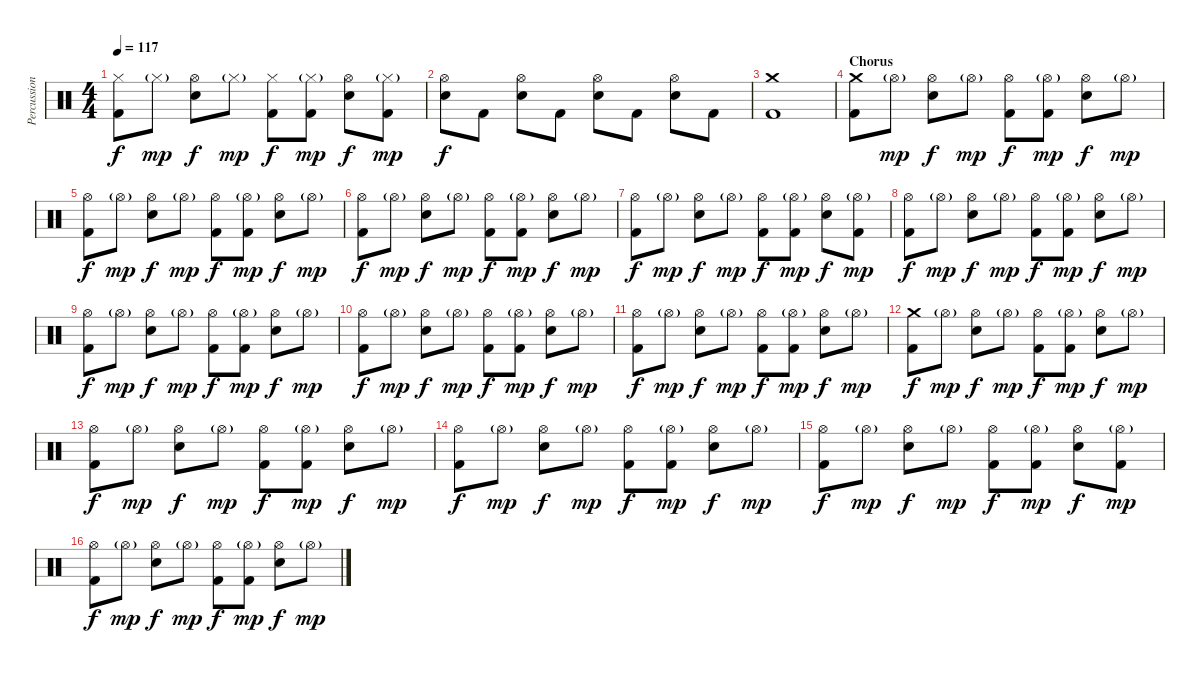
\track ("Percussion" "Percussion") {instrument percussion}
\staff {score}
\articulation defaults
\ts (4 4)
\tempo 117
\clef neutral
\ks c
("Hi-Hat (closed)" "Kick (hit) 2").8{dy f} "Hi-Hat (closed)"{g}.8{dy mp} ("Hi-Hat (open)" "Electric Snare (hit)").8{dy f} "Hi-Hat (closed)"{g}.8{dy mp} ("Hi-Hat (closed)" "Kick (hit) 2").8{dy f} ("Hi-Hat (closed)"{g} "Kick (hit) 2").8{dy mp} ("Hi-Hat (open)" "Electric Snare (hit)").8{dy f} ("Hi-Hat (closed)"{g} "Kick (hit) 2").8{dy mp} |
("Hi-Hat (open)" "Electric Snare (hit)").8{dy f} "Kick (hit) 2".8 ("Hi-Hat (open)" "Electric Snare (hit)").8 "Kick (hit) 2".8 ("Hi-Hat (open)" "Electric Snare (hit)").8 "Kick (hit) 2".8 ("Hi-Hat (open)" "Electric Snare (hit)").8 "Kick (hit) 2".8 |
("Crash medium (hit)" "Kick (hit) 2").1 |
\section ("" "Chorus")
("Crash medium (hit)" "Kick (hit) 2").8 "Hi-Hat (open)"{g}.8{dy mp} ("Hi-Hat (open)" "Electric Snare (hit)").8{dy f} "Hi-Hat (open)"{g}.8{dy mp} ("Hi-Hat (open)" "Kick (hit) 2").8{dy f} ("Hi-Hat (open)"{g} "Kick (hit) 2").8{dy mp} ("Hi-Hat (open)" "Electric Snare (hit)").8{dy f} "Hi-Hat (open)"{g}.8{dy mp} |
("Hi-Hat (open)" "Kick (hit) 2").8{dy f} "Hi-Hat (open)"{g}.8{dy mp} ("Hi-Hat (open)" "Electric Snare (hit)").8{dy f} "Hi-Hat (open)"{g}.8{dy mp} ("Hi-Hat (open)" "Kick (hit) 2").8{dy f} ("Hi-Hat (open)"{g} "Kick (hit) 2").8{dy mp} ("Hi-Hat (open)" "Electric Snare (hit)").8{dy f} "Hi-Hat (open)"{g}.8{dy mp} |
("Hi-Hat (open)" "Kick (hit) 2").8{dy f} "Hi-Hat (open)"{g}.8{dy mp} ("Hi-Hat (open)" "Electric Snare (hit)").8{dy f} "Hi-Hat (open)"{g}.8{dy mp} ("Hi-Hat (open)" "Kick (hit) 2").8{dy f} ("Hi-Hat (open)"{g} "Kick (hit) 2").8{dy mp} ("Hi-Hat (open)" "Electric Snare (hit)").8{dy f} "Hi-Hat (open)"{g}.8{dy mp} |
("Hi-Hat (open)" "Kick (hit) 2").8{dy f} "Hi-Hat (open)"{g}.8{dy mp} ("Hi-Hat (open)" "Electric Snare (hit)").8{dy f} "Hi-Hat (open)"{g}.8{dy mp} ("Hi-Hat (open)" "Kick (hit) 2").8{dy f} ("Hi-Hat (open)"{g} "Kick (hit) 2").8{dy mp} ("Hi-Hat (open)" "Electric Snare (hit)").8{dy f} ("Hi-Hat (open)"{g} "Kick (hit) 2").8{dy mp} |
("Hi-Hat (open)" "Kick (hit) 2").8{dy f} "Hi-Hat (open)"{g}.8{dy mp} ("Hi-Hat (open)" "Electric Snare (hit)").8{dy f} "Hi-Hat (open)"{g}.8{dy mp} ("Hi-Hat (open)" "Kick (hit) 2").8{dy f} ("Hi-Hat (open)"{g} "Kick (hit) 2").8{dy mp} ("Hi-Hat (open)" "Electric Snare (hit)").8{dy f} "Hi-Hat (open)"{g}.8{dy mp} |
("Hi-Hat (open)" "Kick (hit) 2").8{dy f} "Hi-Hat (open)"{g}.8{dy mp} ("Hi-Hat (open)" "Electric Snare (hit)").8{dy f} "Hi-Hat (open)"{g}.8{dy mp} ("Hi-Hat (open)" "Kick (hit) 2").8{dy f} ("Hi-Hat (open)"{g} "Kick (hit) 2").8{dy mp} ("Hi-Hat (open)" "Electric Snare (hit)").8{dy f} "Hi-Hat (open)"{g}.8{dy mp} |
("Hi-Hat (open)" "Kick (hit) 2").8{dy f} "Hi-Hat (open)"{g}.8{dy mp} ("Hi-Hat (open)" "Electric Snare (hit)").8{dy f} "Hi-Hat (open)"{g}.8{dy mp} ("Hi-Hat (open)" "Kick (hit) 2").8{dy f} ("Hi-Hat (open)"{g} "Kick (hit) 2").8{dy mp} ("Hi-Hat (open)" "Electric Snare (hit)").8{dy f} "Hi-Hat (open)"{g}.8{dy mp} |
("Hi-Hat (open)" "Kick (hit) 2").8{dy f} "Hi-Hat (open)"{g}.8{dy mp} ("Hi-Hat (open)" "Electric Snare (hit)").8{dy f} "Hi-Hat (open)"{g}.8{dy mp} ("Hi-Hat (open)" "Kick (hit) 2").8{dy f} ("Hi-Hat (open)"{g} "Kick (hit) 2").8{dy mp} ("Hi-Hat (open)" "Electric Snare (hit)").8{dy f} "Hi-Hat (open)"{g}.8{dy mp} |
("Crash medium (hit)" "Kick (hit) 2").8{dy f} "Hi-Hat (open)"{g}.8{dy mp} ("Hi-Hat (open)" "Electric Snare (hit)").8{dy f} "Hi-Hat (open)"{g}.8{dy mp} ("Hi-Hat (open)" "Kick (hit) 2").8{dy f} ("Hi-Hat (open)"{g} "Kick (hit) 2").8{dy mp} ("Hi-Hat (open)" "Electric Snare (hit)").8{dy f} "Hi-Hat (open)"{g}.8{dy mp} |
("Hi-Hat (open)" "Kick (hit) 2").8{dy f} "Hi-Hat (open)"{g}.8{dy mp} ("Hi-Hat (open)" "Electric Snare (hit)").8{dy f} "Hi-Hat (open)"{g}.8{dy mp} ("Hi-Hat (open)" "Kick (hit) 2").8{dy f} ("Hi-Hat (open)"{g} "Kick (hit) 2").8{dy mp} ("Hi-Hat (open)" "Electric Snare (hit)").8{dy f} "Hi-Hat (open)"{g}.8{dy mp} |
("Hi-Hat (open)" "Kick (hit) 2").8{dy f} "Hi-Hat (open)"{g}.8{dy mp} ("Hi-Hat (open)" "Electric Snare (hit)").8{dy f} "Hi-Hat (open)"{g}.8{dy mp} ("Hi-Hat (open)" "Kick (hit) 2").8{dy f} ("Hi-Hat (open)"{g} "Kick (hit) 2").8{dy mp} ("Hi-Hat (open)" "Electric Snare (hit)").8{dy f} "Hi-Hat (open)"{g}.8{dy mp} |
("Hi-Hat (open)" "Kick (hit) 2").8{dy f} "Hi-Hat (open)"{g}.8{dy mp} ("Hi-Hat (open)" "Electric Snare (hit)").8{dy f} "Hi-Hat (open)"{g}.8{dy mp} ("Hi-Hat (open)" "Kick (hit) 2").8{dy f} ("Hi-Hat (open)"{g} "Kick (hit) 2").8{dy mp} ("Hi-Hat (open)" "Electric Snare (hit)").8{dy f} ("Hi-Hat (open)"{g} "Kick (hit) 2").8{dy mp} |
("Hi-Hat (open)" "Kick (hit) 2").8{dy f} "Hi-Hat (open)"{g}.8{dy mp} ("Hi-Hat (open)" "Electric Snare (hit)").8{dy f} "Hi-Hat (open)"{g}.8{dy mp} ("Hi-Hat (open)" "Kick (hit) 2").8{dy f} ("Hi-Hat (open)"{g} "Kick (hit) 2").8{dy mp} ("Hi-Hat (open)" "Electric Snare (hit)").8{dy f} "Hi-Hat (open)"{g}.8{dy mp}
